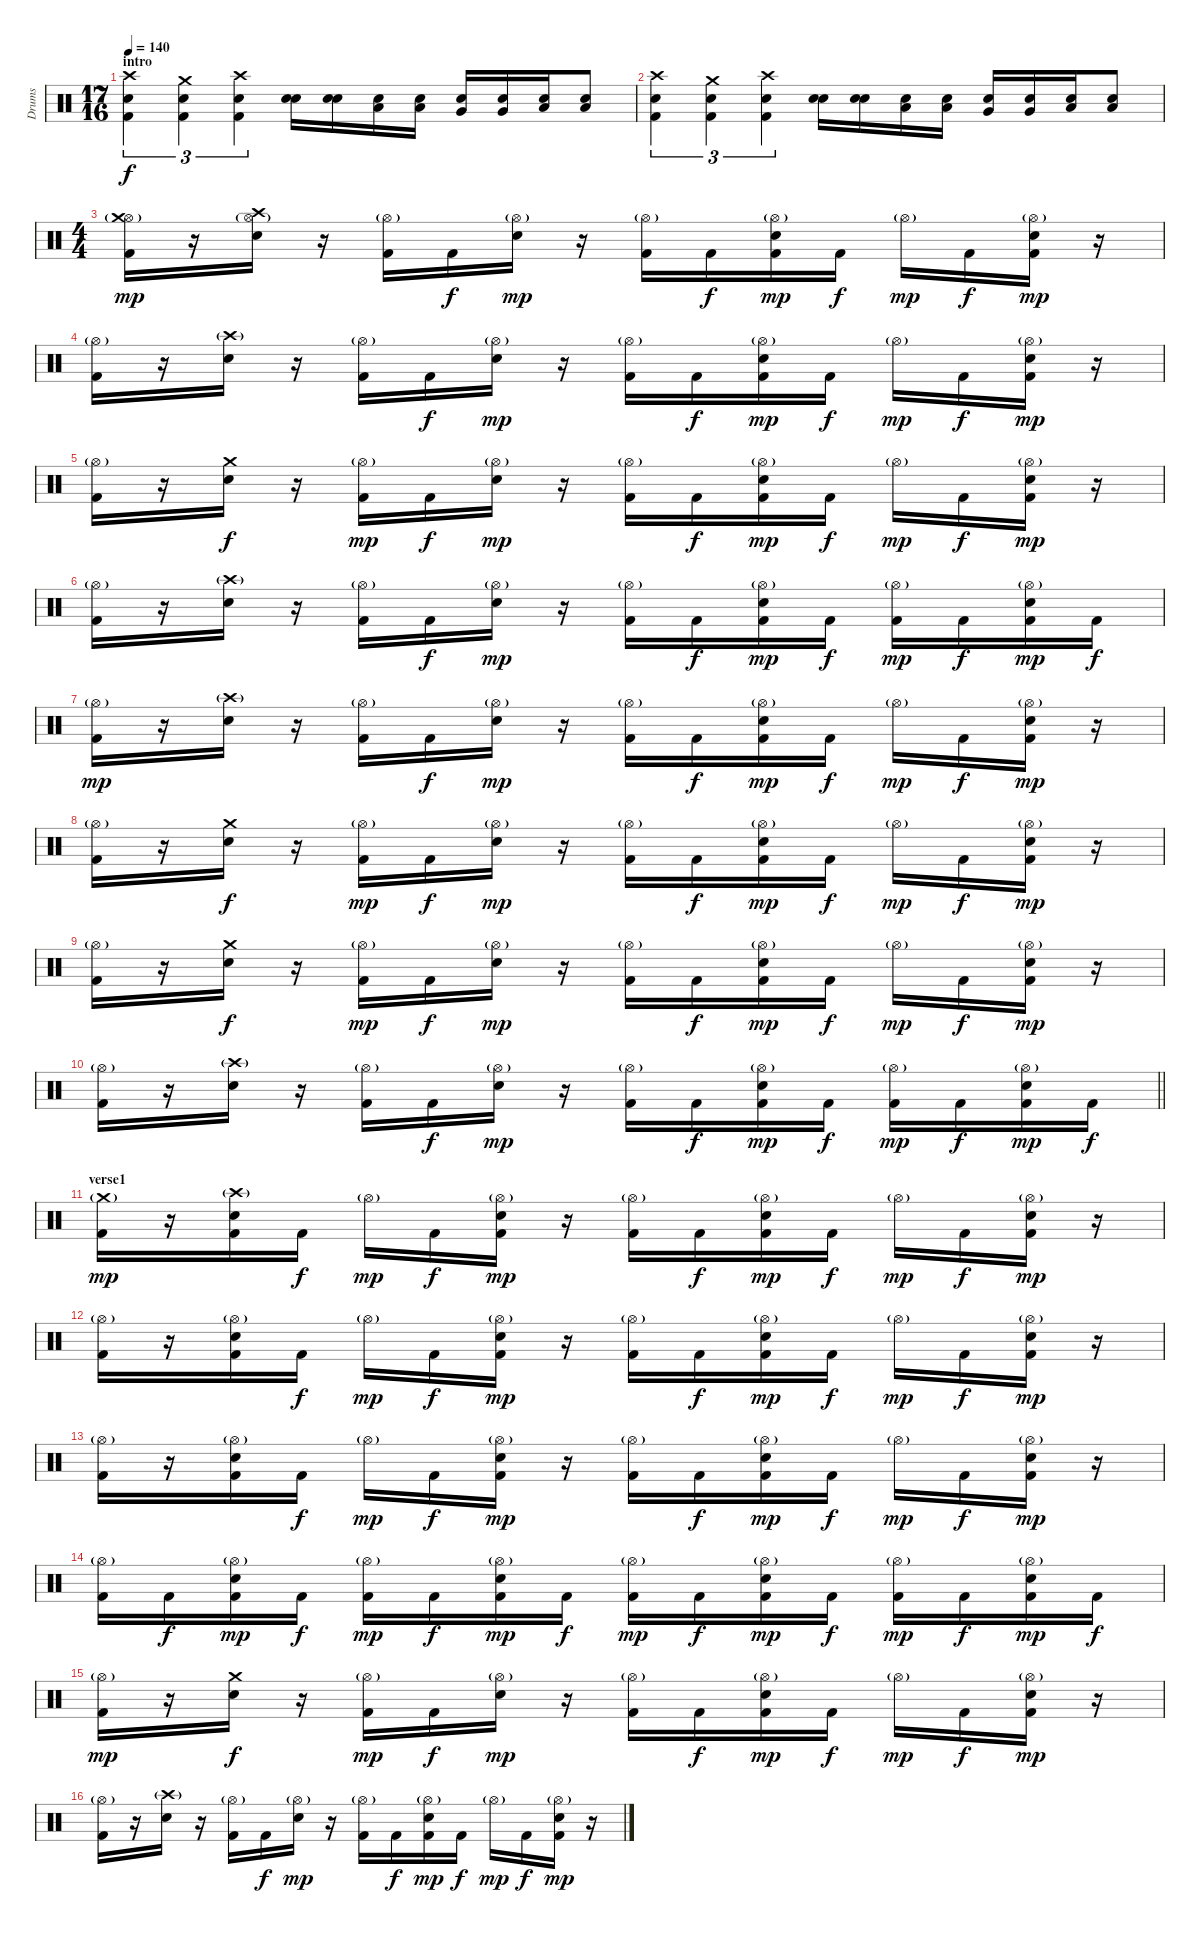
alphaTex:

\track ("Drums" "Drums") {instrument percussion}
\staff {score}
\articulation defaults
\ts (17 16)
\section ("" "intro")
\tempo 140
\clef neutral
\ks c
("Crash high (hit)" "Electric Snare (hit)" "Kick (hit) 2").4{tu (3 2) dy f} ("Crash medium (hit)" "Electric Snare (hit)" "Kick (hit) 2").4{tu (3 2)} ("Crash high (hit)" "Electric Snare (hit)" "Kick (hit) 2").4{tu (3 2)} ("Electric Snare (hit)" "Snare (hit) 2").16 ("Electric Snare (hit)" "Snare (hit) 2").16 ("Electric Snare (hit)" "Low Floor Tom (hit)").16 ("Electric Snare (hit)" "Low Floor Tom (hit)").16 ("Electric Snare (hit)" "Very Low Tom (hit)").16 ("Electric Snare (hit)" "Very Low Tom (hit)").16 ("Electric Snare (hit)" "Low Tom (hit)").16 ("Electric Snare (hit)" "Low Tom (hit)").8 |
("Crash high (hit)" "Electric Snare (hit)" "Kick (hit) 2").4{tu (3 2)} ("Crash medium (hit)" "Electric Snare (hit)" "Kick (hit) 2").4{tu (3 2)} ("Crash high (hit)" "Electric Snare (hit)" "Kick (hit) 2").4{tu (3 2)} ("Electric Snare (hit)" "Snare (hit) 2").16 ("Electric Snare (hit)" "Snare (hit) 2").16 ("Electric Snare (hit)" "Low Floor Tom (hit)").16 ("Electric Snare (hit)" "Low Floor Tom (hit)").16 ("Electric Snare (hit)" "Very Low Tom (hit)").16 ("Electric Snare (hit)" "Very Low Tom (hit)").16 ("Electric Snare (hit)" "Low Tom (hit)").16 ("Electric Snare (hit)" "Low Tom (hit)").8 |
\ts (4 4)
("Hi-Hat (open)"{g} "Kick (hit) 2" "Crash medium (hit)").16{dy mp} r.16 ("Hi-Hat (open)"{g} "Electric Snare (hit)" "Crash high (hit)").16 r.16 ("Hi-Hat (open)"{g} "Kick (hit) 2").16 "Kick (hit) 2".16{dy f} ("Hi-Hat (open)"{g} "Electric Snare (hit)").16{dy mp} r.16 ("Hi-Hat (open)"{g} "Kick (hit) 2").16 "Kick (hit) 2".16{dy f} ("Hi-Hat (open)"{g} "Electric Snare (hit)" "Kick (hit) 2").16{dy mp} "Kick (hit) 2".16{dy f} "Hi-Hat (open)"{g}.16{dy mp} "Kick (hit) 2".16{dy f} ("Hi-Hat (open)"{g} "Electric Snare (hit)" "Kick (hit) 2").16{dy mp} r.16 |
("Hi-Hat (open)"{g} "Kick (hit) 2").16 r.16 ("Crash high (hit)"{g} "Electric Snare (hit)").16 r.16 ("Hi-Hat (open)"{g} "Kick (hit) 2").16 "Kick (hit) 2".16{dy f} ("Hi-Hat (open)"{g} "Electric Snare (hit)").16{dy mp} r.16 ("Hi-Hat (open)"{g} "Kick (hit) 2").16 "Kick (hit) 2".16{dy f} ("Hi-Hat (open)"{g} "Electric Snare (hit)" "Kick (hit) 2").16{dy mp} "Kick (hit) 2".16{dy f} "Hi-Hat (open)"{g}.16{dy mp} "Kick (hit) 2".16{dy f} ("Hi-Hat (open)"{g} "Electric Snare (hit)" "Kick (hit) 2").16{dy mp} r.16 |
("Hi-Hat (open)"{g} "Kick (hit) 2").16 r.16 ("Crash medium (hit)" "Electric Snare (hit)").16{dy f} r.16 ("Hi-Hat (open)"{g} "Kick (hit) 2").16{dy mp} "Kick (hit) 2".16{dy f} ("Hi-Hat (open)"{g} "Electric Snare (hit)").16{dy mp} r.16 ("Hi-Hat (open)"{g} "Kick (hit) 2").16 "Kick (hit) 2".16{dy f} ("Hi-Hat (open)"{g} "Electric Snare (hit)" "Kick (hit) 2").16{dy mp} "Kick (hit) 2".16{dy f} "Hi-Hat (open)"{g}.16{dy mp} "Kick (hit) 2".16{dy f} ("Hi-Hat (open)"{g} "Electric Snare (hit)" "Kick (hit) 2").16{dy mp} r.16 |
("Hi-Hat (open)"{g} "Kick (hit) 2").16 r.16 ("Crash high (hit)"{g} "Electric Snare (hit)").16 r.16 ("Hi-Hat (open)"{g} "Kick (hit) 2").16 "Kick (hit) 2".16{dy f} ("Hi-Hat (open)"{g} "Electric Snare (hit)").16{dy mp} r.16 ("Hi-Hat (open)"{g} "Kick (hit) 2").16 "Kick (hit) 2".16{dy f} ("Hi-Hat (open)"{g} "Electric Snare (hit)" "Kick (hit) 2").16{dy mp} "Kick (hit) 2".16{dy f} ("Hi-Hat (open)"{g} "Kick (hit) 2").16{dy mp} "Kick (hit) 2".16{dy f} ("Hi-Hat (open)"{g} "Electric Snare (hit)" "Kick (hit) 2").16{dy mp} "Kick (hit) 2".16{dy f} |
("Hi-Hat (open)"{g} "Kick (hit) 2").16{dy mp} r.16 ("Crash high (hit)"{g} "Electric Snare (hit)").16 r.16 ("Hi-Hat (open)"{g} "Kick (hit) 2").16 "Kick (hit) 2".16{dy f} ("Hi-Hat (open)"{g} "Electric Snare (hit)").16{dy mp} r.16 ("Hi-Hat (open)"{g} "Kick (hit) 2").16 "Kick (hit) 2".16{dy f} ("Hi-Hat (open)"{g} "Electric Snare (hit)" "Kick (hit) 2").16{dy mp} "Kick (hit) 2".16{dy f} "Hi-Hat (open)"{g}.16{dy mp} "Kick (hit) 2".16{dy f} ("Hi-Hat (open)"{g} "Electric Snare (hit)" "Kick (hit) 2").16{dy mp} r.16 |
("Hi-Hat (open)"{g} "Kick (hit) 2").16 r.16 ("Crash medium (hit)" "Electric Snare (hit)").16{dy f} r.16 ("Hi-Hat (open)"{g} "Kick (hit) 2").16{dy mp} "Kick (hit) 2".16{dy f} ("Hi-Hat (open)"{g} "Electric Snare (hit)").16{dy mp} r.16 ("Hi-Hat (open)"{g} "Kick (hit) 2").16 "Kick (hit) 2".16{dy f} ("Hi-Hat (open)"{g} "Electric Snare (hit)" "Kick (hit) 2").16{dy mp} "Kick (hit) 2".16{dy f} "Hi-Hat (open)"{g}.16{dy mp} "Kick (hit) 2".16{dy f} ("Hi-Hat (open)"{g} "Electric Snare (hit)" "Kick (hit) 2").16{dy mp} r.16 |
("Hi-Hat (open)"{g} "Kick (hit) 2").16 r.16 ("Crash medium (hit)" "Electric Snare (hit)").16{dy f} r.16 ("Hi-Hat (open)"{g} "Kick (hit) 2").16{dy mp} "Kick (hit) 2".16{dy f} ("Hi-Hat (open)"{g} "Electric Snare (hit)").16{dy mp} r.16 ("Hi-Hat (open)"{g} "Kick (hit) 2").16 "Kick (hit) 2".16{dy f} ("Hi-Hat (open)"{g} "Electric Snare (hit)" "Kick (hit) 2").16{dy mp} "Kick (hit) 2".16{dy f} "Hi-Hat (open)"{g}.16{dy mp} "Kick (hit) 2".16{dy f} ("Hi-Hat (open)"{g} "Electric Snare (hit)" "Kick (hit) 2").16{dy mp} r.16 |
\barLineRight lightlight
("Hi-Hat (open)"{g} "Kick (hit) 2").16 r.16 ("Crash high (hit)"{g} "Electric Snare (hit)").16 r.16 ("Hi-Hat (open)"{g} "Kick (hit) 2").16 "Kick (hit) 2".16{dy f} ("Hi-Hat (open)"{g} "Electric Snare (hit)").16{dy mp} r.16 ("Hi-Hat (open)"{g} "Kick (hit) 2").16 "Kick (hit) 2".16{dy f} ("Hi-Hat (open)"{g} "Electric Snare (hit)" "Kick (hit) 2").16{dy mp} "Kick (hit) 2".16{dy f} ("Hi-Hat (open)"{g} "Kick (hit) 2").16{dy mp} "Kick (hit) 2".16{dy f} ("Hi-Hat (open)"{g} "Electric Snare (hit)" "Kick (hit) 2").16{dy mp} "Kick (hit) 2".16{dy f} |
\section ("" "verse1")
("Crash medium (hit)"{g} "Kick (hit) 2").16{dy mp} r.16 ("Crash high (hit)"{g} "Electric Snare (hit)" "Kick (hit) 2").16 "Kick (hit) 2".16{dy f} "Hi-Hat (open)"{g}.16{dy mp} "Kick (hit) 2".16{dy f} ("Hi-Hat (open)"{g} "Electric Snare (hit)" "Kick (hit) 2").16{dy mp} r.16 ("Hi-Hat (open)"{g} "Kick (hit) 2").16 "Kick (hit) 2".16{dy f} ("Hi-Hat (open)"{g} "Electric Snare (hit)" "Kick (hit) 2").16{dy mp} "Kick (hit) 2".16{dy f} "Hi-Hat (open)"{g}.16{dy mp} "Kick (hit) 2".16{dy f} ("Hi-Hat (open)"{g} "Electric Snare (hit)" "Kick (hit) 2").16{dy mp} r.16 |
("Hi-Hat (open)"{g} "Kick (hit) 2").16 r.16 ("Hi-Hat (open)"{g} "Electric Snare (hit)" "Kick (hit) 2").16 "Kick (hit) 2".16{dy f} "Hi-Hat (open)"{g}.16{dy mp} "Kick (hit) 2".16{dy f} ("Hi-Hat (open)"{g} "Electric Snare (hit)" "Kick (hit) 2").16{dy mp} r.16 ("Hi-Hat (open)"{g} "Kick (hit) 2").16 "Kick (hit) 2".16{dy f} ("Hi-Hat (open)"{g} "Electric Snare (hit)" "Kick (hit) 2").16{dy mp} "Kick (hit) 2".16{dy f} "Hi-Hat (open)"{g}.16{dy mp} "Kick (hit) 2".16{dy f} ("Hi-Hat (open)"{g} "Electric Snare (hit)" "Kick (hit) 2").16{dy mp} r.16 |
("Hi-Hat (open)"{g} "Kick (hit) 2").16 r.16 ("Hi-Hat (open)"{g} "Electric Snare (hit)" "Kick (hit) 2").16 "Kick (hit) 2".16{dy f} "Hi-Hat (open)"{g}.16{dy mp} "Kick (hit) 2".16{dy f} ("Hi-Hat (open)"{g} "Electric Snare (hit)" "Kick (hit) 2").16{dy mp} r.16 ("Hi-Hat (open)"{g} "Kick (hit) 2").16 "Kick (hit) 2".16{dy f} ("Hi-Hat (open)"{g} "Electric Snare (hit)" "Kick (hit) 2").16{dy mp} "Kick (hit) 2".16{dy f} "Hi-Hat (open)"{g}.16{dy mp} "Kick (hit) 2".16{dy f} ("Hi-Hat (open)"{g} "Electric Snare (hit)" "Kick (hit) 2").16{dy mp} r.16 |
("Hi-Hat (open)"{g} "Kick (hit) 2").16 "Kick (hit) 2".16{dy f} ("Hi-Hat (open)"{g} "Electric Snare (hit)" "Kick (hit) 2").16{dy mp} "Kick (hit) 2".16{dy f} ("Hi-Hat (open)"{g} "Kick (hit) 2").16{dy mp} "Kick (hit) 2".16{dy f} ("Hi-Hat (open)"{g} "Electric Snare (hit)" "Kick (hit) 2").16{dy mp} "Kick (hit) 2".16{dy f} ("Hi-Hat (open)"{g} "Kick (hit) 2").16{dy mp} "Kick (hit) 2".16{dy f} ("Hi-Hat (open)"{g} "Electric Snare (hit)" "Kick (hit) 2").16{dy mp} "Kick (hit) 2".16{dy f} ("Hi-Hat (open)"{g} "Kick (hit) 2").16{dy mp} "Kick (hit) 2".16{dy f} ("Hi-Hat (open)"{g} "Electric Snare (hit)" "Kick (hit) 2").16{dy mp} "Kick (hit) 2".16{dy f} |
("Hi-Hat (open)"{g} "Kick (hit) 2").16{dy mp} r.16 ("Crash medium (hit)" "Electric Snare (hit)").16{dy f} r.16 ("Hi-Hat (open)"{g} "Kick (hit) 2").16{dy mp} "Kick (hit) 2".16{dy f} ("Hi-Hat (open)"{g} "Electric Snare (hit)").16{dy mp} r.16 ("Hi-Hat (open)"{g} "Kick (hit) 2").16 "Kick (hit) 2".16{dy f} ("Hi-Hat (open)"{g} "Electric Snare (hit)" "Kick (hit) 2").16{dy mp} "Kick (hit) 2".16{dy f} "Hi-Hat (open)"{g}.16{dy mp} "Kick (hit) 2".16{dy f} ("Hi-Hat (open)"{g} "Electric Snare (hit)" "Kick (hit) 2").16{dy mp} r.16 |
("Hi-Hat (open)"{g} "Kick (hit) 2").16 r.16 ("Crash high (hit)"{g} "Electric Snare (hit)").16 r.16 ("Hi-Hat (open)"{g} "Kick (hit) 2").16 "Kick (hit) 2".16{dy f} ("Hi-Hat (open)"{g} "Electric Snare (hit)").16{dy mp} r.16 ("Hi-Hat (open)"{g} "Kick (hit) 2").16 "Kick (hit) 2".16{dy f} ("Hi-Hat (open)"{g} "Electric Snare (hit)" "Kick (hit) 2").16{dy mp} "Kick (hit) 2".16{dy f} "Hi-Hat (open)"{g}.16{dy mp} "Kick (hit) 2".16{dy f} ("Hi-Hat (open)"{g} "Electric Snare (hit)" "Kick (hit) 2").16{dy mp} r.16
